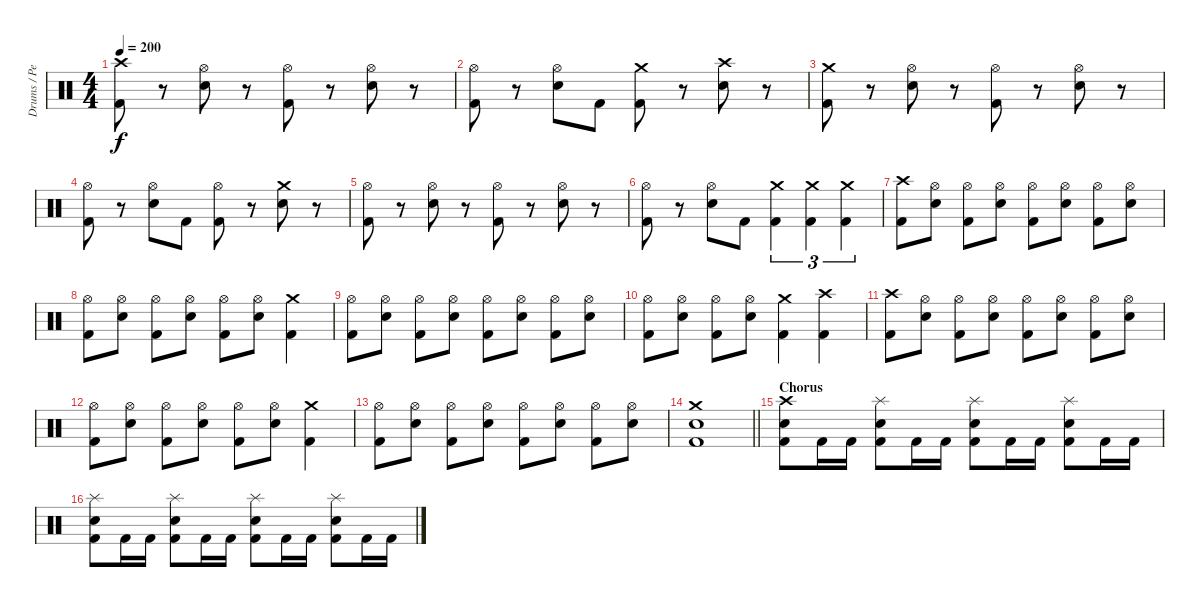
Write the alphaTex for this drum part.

\track ("Drums / Percussion" "Drums / Pe") {instrument percussion}
\staff {score}
\articulation defaults
\ts (4 4)
\tempo 200
\clef neutral
\ks c
("Crash high (hit)" "Kick (hit) 2").8{dy f} r.8 ("Hi-Hat (open)" "Electric Snare (hit)").8 r.8 ("Hi-Hat (open)" "Kick (hit) 2").8 r.8 ("Hi-Hat (open)" "Electric Snare (hit)").8 r.8 |
("Hi-Hat (open)" "Kick (hit) 2").8 r.8 ("Hi-Hat (open)" "Electric Snare (hit)").8 "Kick (hit) 2".8 ("Crash medium (hit)" "Kick (hit) 2").8 r.8 ("Crash high (hit)" "Electric Snare (hit)").8 r.8 |
("Crash medium (hit)" "Kick (hit) 2").8 r.8 ("Hi-Hat (open)" "Electric Snare (hit)").8 r.8 ("Hi-Hat (open)" "Kick (hit) 2").8 r.8 ("Hi-Hat (open)" "Electric Snare (hit)").8 r.8 |
("Hi-Hat (open)" "Kick (hit) 2").8 r.8 ("Hi-Hat (open)" "Electric Snare (hit)").8 "Kick (hit) 2".8 ("Hi-Hat (open)" "Kick (hit) 2").8 r.8 ("Crash medium (hit)" "Electric Snare (hit)").8 r.8 |
("Hi-Hat (open)" "Kick (hit) 2").8 r.8 ("Hi-Hat (open)" "Electric Snare (hit)").8 r.8 ("Hi-Hat (open)" "Kick (hit) 2").8 r.8 ("Hi-Hat (open)" "Electric Snare (hit)").8 r.8 |
("Hi-Hat (open)" "Kick (hit) 2").8 r.8 ("Hi-Hat (open)" "Electric Snare (hit)").8 "Kick (hit) 2".8 ("Crash medium (hit)" "Kick (hit) 2").4{tu (3 2)} ("Crash medium (hit)" "Kick (hit) 2").4{tu (3 2)} ("Crash medium (hit)" "Kick (hit) 2").4{tu (3 2)} |
("Crash high (hit)" "Kick (hit) 2").8 ("Hi-Hat (open)" "Electric Snare (hit)").8 ("Hi-Hat (open)" "Kick (hit) 2").8 ("Hi-Hat (open)" "Electric Snare (hit)").8 ("Hi-Hat (open)" "Kick (hit) 2").8 ("Hi-Hat (open)" "Electric Snare (hit)").8 ("Hi-Hat (open)" "Kick (hit) 2").8 ("Hi-Hat (open)" "Electric Snare (hit)").8 |
("Hi-Hat (open)" "Kick (hit) 2").8 ("Hi-Hat (open)" "Electric Snare (hit)").8 ("Hi-Hat (open)" "Kick (hit) 2").8 ("Hi-Hat (open)" "Electric Snare (hit)").8 ("Hi-Hat (open)" "Kick (hit) 2").8 ("Hi-Hat (open)" "Electric Snare (hit)").8 ("Crash medium (hit)" "Kick (hit) 2").4 |
("Hi-Hat (open)" "Kick (hit) 2").8 ("Hi-Hat (open)" "Electric Snare (hit)").8 ("Hi-Hat (open)" "Kick (hit) 2").8 ("Hi-Hat (open)" "Electric Snare (hit)").8 ("Hi-Hat (open)" "Kick (hit) 2").8 ("Hi-Hat (open)" "Electric Snare (hit)").8 ("Hi-Hat (open)" "Kick (hit) 2").8 ("Hi-Hat (open)" "Electric Snare (hit)").8 |
("Hi-Hat (open)" "Kick (hit) 2").8 ("Hi-Hat (open)" "Electric Snare (hit)").8 ("Hi-Hat (open)" "Kick (hit) 2").8 ("Hi-Hat (open)" "Electric Snare (hit)").8 ("Crash medium (hit)" "Kick (hit) 2").4 ("Crash high (hit)" "Kick (hit) 2").4 |
("Crash high (hit)" "Kick (hit) 2").8 ("Hi-Hat (open)" "Electric Snare (hit)").8 ("Hi-Hat (open)" "Kick (hit) 2").8 ("Hi-Hat (open)" "Electric Snare (hit)").8 ("Hi-Hat (open)" "Kick (hit) 2").8 ("Hi-Hat (open)" "Electric Snare (hit)").8 ("Hi-Hat (open)" "Kick (hit) 2").8 ("Hi-Hat (open)" "Electric Snare (hit)").8 |
("Hi-Hat (open)" "Kick (hit) 2").8 ("Hi-Hat (open)" "Electric Snare (hit)").8 ("Hi-Hat (open)" "Kick (hit) 2").8 ("Hi-Hat (open)" "Electric Snare (hit)").8 ("Hi-Hat (open)" "Kick (hit) 2").8 ("Hi-Hat (open)" "Electric Snare (hit)").8 ("Crash medium (hit)" "Kick (hit) 2").4 |
("Hi-Hat (open)" "Kick (hit) 2").8 ("Hi-Hat (open)" "Electric Snare (hit)").8 ("Hi-Hat (open)" "Kick (hit) 2").8 ("Hi-Hat (open)" "Electric Snare (hit)").8 ("Hi-Hat (open)" "Kick (hit) 2").8 ("Hi-Hat (open)" "Electric Snare (hit)").8 ("Hi-Hat (open)" "Kick (hit) 2").8 ("Hi-Hat (open)" "Electric Snare (hit)").8 |
\barLineRight lightlight
("Crash medium (hit)" "Electric Snare (hit)" "Kick (hit) 2").1 |
\section ("" "Chorus")
("Crash high (hit)" "Electric Snare (hit)" "Kick (hit) 2").8 "Kick (hit) 2".16 "Kick (hit) 2".16 ("Splash (hit)" "Electric Snare (hit)" "Kick (hit) 2").8 "Kick (hit) 2".16 "Kick (hit) 2".16 ("Splash (hit)" "Electric Snare (hit)" "Kick (hit) 2").8 "Kick (hit) 2".16 "Kick (hit) 2".16 ("Splash (hit)" "Electric Snare (hit)" "Kick (hit) 2").8 "Kick (hit) 2".16 "Kick (hit) 2".16 |
("Splash (hit)" "Electric Snare (hit)" "Kick (hit) 2").8 "Kick (hit) 2".16 "Kick (hit) 2".16 ("Splash (hit)" "Electric Snare (hit)" "Kick (hit) 2").8 "Kick (hit) 2".16 "Kick (hit) 2".16 ("Splash (hit)" "Electric Snare (hit)" "Kick (hit) 2").8 "Kick (hit) 2".16 "Kick (hit) 2".16 ("Splash (hit)" "Electric Snare (hit)" "Kick (hit) 2").8 "Kick (hit) 2".16 "Kick (hit) 2".16
